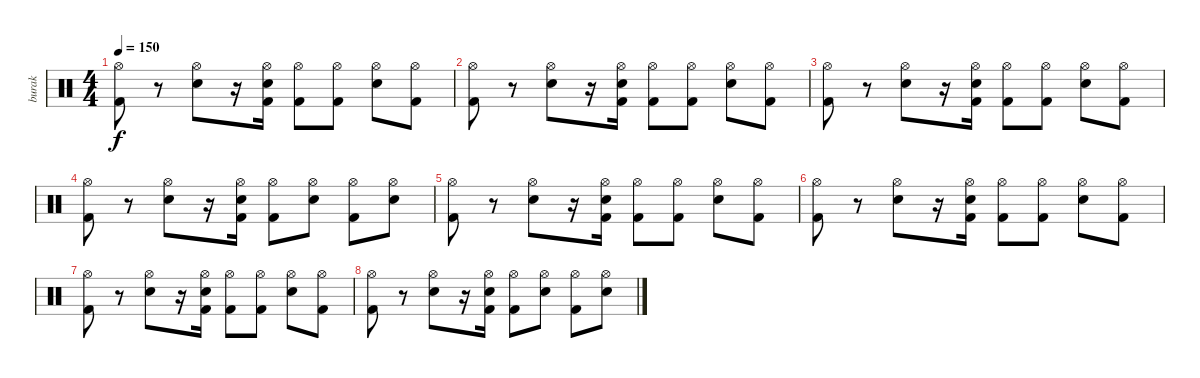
\track ("burak" "burak") {instrument percussion}
\staff {score}
\articulation defaults
\ts (4 4)
\tempo 150
\clef neutral
\ks c
("Hi-Hat (open)" "Kick (hit) 2").8{dy f} r.8 ("Hi-Hat (open)" "Electric Snare (hit)").8 r.16 ("Hi-Hat (open)" "Kick (hit) 2" "Electric Snare (hit)").16 ("Hi-Hat (open)" "Kick (hit) 2").8 ("Hi-Hat (open)" "Kick (hit) 2").8 ("Hi-Hat (open)" "Electric Snare (hit)").8 ("Hi-Hat (open)" "Kick (hit) 2").8 |
("Hi-Hat (open)" "Kick (hit) 2").8 r.8 ("Hi-Hat (open)" "Electric Snare (hit)").8 r.16 ("Hi-Hat (open)" "Kick (hit) 2" "Electric Snare (hit)").16 ("Hi-Hat (open)" "Kick (hit) 2").8 ("Hi-Hat (open)" "Kick (hit) 2").8 ("Hi-Hat (open)" "Electric Snare (hit)").8 ("Hi-Hat (open)" "Kick (hit) 2").8 |
("Hi-Hat (open)" "Kick (hit) 2").8 r.8 ("Hi-Hat (open)" "Electric Snare (hit)").8 r.16 ("Hi-Hat (open)" "Kick (hit) 2" "Electric Snare (hit)").16 ("Hi-Hat (open)" "Kick (hit) 2").8 ("Hi-Hat (open)" "Kick (hit) 2").8 ("Hi-Hat (open)" "Electric Snare (hit)").8 ("Hi-Hat (open)" "Kick (hit) 2").8 |
("Hi-Hat (open)" "Kick (hit) 2").8 r.8 ("Hi-Hat (open)" "Electric Snare (hit)").8 r.16 ("Hi-Hat (open)" "Kick (hit) 2" "Electric Snare (hit)").16 ("Hi-Hat (open)" "Kick (hit) 2").8 ("Hi-Hat (open)" "Electric Snare (hit)").8 ("Hi-Hat (open)" "Kick (hit) 2").8 ("Hi-Hat (open)" "Electric Snare (hit)").8 |
("Hi-Hat (open)" "Kick (hit) 2").8 r.8 ("Hi-Hat (open)" "Electric Snare (hit)").8 r.16 ("Hi-Hat (open)" "Kick (hit) 2" "Electric Snare (hit)").16 ("Hi-Hat (open)" "Kick (hit) 2").8 ("Hi-Hat (open)" "Kick (hit) 2").8 ("Hi-Hat (open)" "Electric Snare (hit)").8 ("Hi-Hat (open)" "Kick (hit) 2").8 |
("Hi-Hat (open)" "Kick (hit) 2").8 r.8 ("Hi-Hat (open)" "Electric Snare (hit)").8 r.16 ("Hi-Hat (open)" "Kick (hit) 2" "Electric Snare (hit)").16 ("Hi-Hat (open)" "Kick (hit) 2").8 ("Hi-Hat (open)" "Kick (hit) 2").8 ("Hi-Hat (open)" "Electric Snare (hit)").8 ("Hi-Hat (open)" "Kick (hit) 2").8 |
("Hi-Hat (open)" "Kick (hit) 2").8 r.8 ("Hi-Hat (open)" "Electric Snare (hit)").8 r.16 ("Hi-Hat (open)" "Kick (hit) 2" "Electric Snare (hit)").16 ("Hi-Hat (open)" "Kick (hit) 2").8 ("Hi-Hat (open)" "Kick (hit) 2").8 ("Hi-Hat (open)" "Electric Snare (hit)").8 ("Hi-Hat (open)" "Kick (hit) 2").8 |
("Hi-Hat (open)" "Kick (hit) 2").8 r.8 ("Hi-Hat (open)" "Electric Snare (hit)").8 r.16 ("Hi-Hat (open)" "Kick (hit) 2" "Electric Snare (hit)").16 ("Hi-Hat (open)" "Kick (hit) 2").8 ("Hi-Hat (open)" "Electric Snare (hit)").8 ("Hi-Hat (open)" "Kick (hit) 2").8 ("Hi-Hat (open)" "Electric Snare (hit)").8
